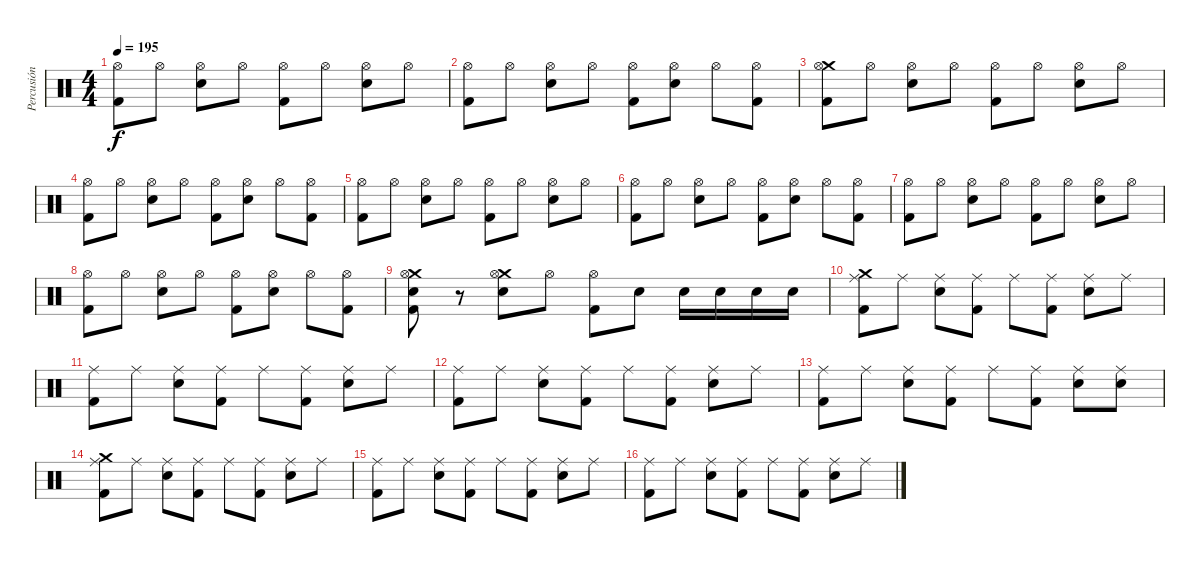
\track ("Percusión" "Percusión") {instrument percussion}
\staff {score}
\articulation defaults
\ts (4 4)
\tempo 195
\clef neutral
\ks c
("Hi-Hat (open)" "Kick (hit) 2").8{dy f} "Hi-Hat (open)".8 ("Hi-Hat (open)" "Snare (hit) 2").8 "Hi-Hat (open)".8 ("Hi-Hat (open)" "Kick (hit) 2").8 "Hi-Hat (open)".8 ("Hi-Hat (open)" "Snare (hit) 2").8 "Hi-Hat (open)".8 |
("Hi-Hat (open)" "Kick (hit) 2").8 "Hi-Hat (open)".8 ("Hi-Hat (open)" "Snare (hit) 2").8 "Hi-Hat (open)".8 ("Hi-Hat (open)" "Kick (hit) 2").8 ("Hi-Hat (open)" "Snare (hit) 2").8 "Hi-Hat (open)".8 ("Hi-Hat (open)" "Kick (hit) 2").8 |
("Crash medium (hit)" "Hi-Hat (open)" "Kick (hit) 2").8 "Hi-Hat (open)".8 ("Hi-Hat (open)" "Snare (hit) 2").8 "Hi-Hat (open)".8 ("Hi-Hat (open)" "Kick (hit) 2").8 "Hi-Hat (open)".8 ("Hi-Hat (open)" "Snare (hit) 2").8 "Hi-Hat (open)".8 |
("Hi-Hat (open)" "Kick (hit) 2").8 "Hi-Hat (open)".8 ("Hi-Hat (open)" "Snare (hit) 2").8 "Hi-Hat (open)".8 ("Hi-Hat (open)" "Kick (hit) 2").8 ("Hi-Hat (open)" "Snare (hit) 2").8 "Hi-Hat (open)".8 ("Hi-Hat (open)" "Kick (hit) 2").8 |
("Hi-Hat (open)" "Kick (hit) 2").8 "Hi-Hat (open)".8 ("Hi-Hat (open)" "Snare (hit) 2").8 "Hi-Hat (open)".8 ("Hi-Hat (open)" "Kick (hit) 2").8 "Hi-Hat (open)".8 ("Hi-Hat (open)" "Snare (hit) 2").8 "Hi-Hat (open)".8 |
("Hi-Hat (open)" "Kick (hit) 2").8 "Hi-Hat (open)".8 ("Hi-Hat (open)" "Snare (hit) 2").8 "Hi-Hat (open)".8 ("Hi-Hat (open)" "Kick (hit) 2").8 ("Hi-Hat (open)" "Snare (hit) 2").8 "Hi-Hat (open)".8 ("Hi-Hat (open)" "Kick (hit) 2").8 |
("Hi-Hat (open)" "Kick (hit) 2").8 "Hi-Hat (open)".8 ("Hi-Hat (open)" "Snare (hit) 2").8 "Hi-Hat (open)".8 ("Hi-Hat (open)" "Kick (hit) 2").8 "Hi-Hat (open)".8 ("Hi-Hat (open)" "Snare (hit) 2").8 "Hi-Hat (open)".8 |
("Hi-Hat (open)" "Kick (hit) 2").8 "Hi-Hat (open)".8 ("Hi-Hat (open)" "Snare (hit) 2").8 "Hi-Hat (open)".8 ("Hi-Hat (open)" "Kick (hit) 2").8 ("Hi-Hat (open)" "Snare (hit) 2").8 "Hi-Hat (open)".8 ("Hi-Hat (open)" "Kick (hit) 2").8 |
("Crash medium (hit)" "Hi-Hat (open)" "Snare (hit) 2" "Kick (hit) 2").8 r.8 ("Crash medium (hit)" "Hi-Hat (open)" "Snare (hit) 2").8 "Hi-Hat (open)".8 ("Hi-Hat (open)" "Kick (hit) 2").8 "Snare (hit) 2".8 "Snare (hit) 2".16 "Snare (hit) 2".16 "Snare (hit) 2".16 "Snare (hit) 2".16 |
("Crash medium (hit)" "Ride (middle)" "Kick (hit) 2").8 "Ride (middle)".8 ("Ride (middle)" "Snare (hit) 2").8 ("Ride (middle)" "Kick (hit) 2").8 "Ride (middle)".8 ("Ride (middle)" "Kick (hit) 2").8 ("Ride (middle)" "Snare (hit) 2").8 "Ride (middle)".8 |
("Ride (middle)" "Kick (hit) 2").8 "Ride (middle)".8 ("Ride (middle)" "Snare (hit) 2").8 ("Ride (middle)" "Kick (hit) 2").8 "Ride (middle)".8 ("Ride (middle)" "Kick (hit) 2").8 ("Ride (middle)" "Snare (hit) 2").8 "Ride (middle)".8 |
("Ride (middle)" "Kick (hit) 2").8 "Ride (middle)".8 ("Ride (middle)" "Snare (hit) 2").8 ("Ride (middle)" "Kick (hit) 2").8 "Ride (middle)".8 ("Ride (middle)" "Kick (hit) 2").8 ("Ride (middle)" "Snare (hit) 2").8 "Ride (middle)".8 |
("Ride (middle)" "Kick (hit) 2").8 "Ride (middle)".8 ("Ride (middle)" "Snare (hit) 2").8 ("Ride (middle)" "Kick (hit) 2").8 "Ride (middle)".8 ("Ride (middle)" "Kick (hit) 2").8 ("Ride (middle)" "Snare (hit) 2").8 ("Ride (middle)" "Snare (hit) 2").8 |
("Crash medium (hit)" "Ride (middle)" "Kick (hit) 2").8 "Ride (middle)".8 ("Ride (middle)" "Snare (hit) 2").8 ("Ride (middle)" "Kick (hit) 2").8 "Ride (middle)".8 ("Ride (middle)" "Kick (hit) 2").8 ("Ride (middle)" "Snare (hit) 2").8 "Ride (middle)".8 |
("Ride (middle)" "Kick (hit) 2").8 "Ride (middle)".8 ("Ride (middle)" "Snare (hit) 2").8 ("Ride (middle)" "Kick (hit) 2").8 "Ride (middle)".8 ("Ride (middle)" "Kick (hit) 2").8 ("Ride (middle)" "Snare (hit) 2").8 "Ride (middle)".8 |
("Ride (middle)" "Kick (hit) 2").8 "Ride (middle)".8 ("Ride (middle)" "Snare (hit) 2").8 ("Ride (middle)" "Kick (hit) 2").8 "Ride (middle)".8 ("Ride (middle)" "Kick (hit) 2").8 ("Ride (middle)" "Snare (hit) 2").8 "Ride (middle)".8
